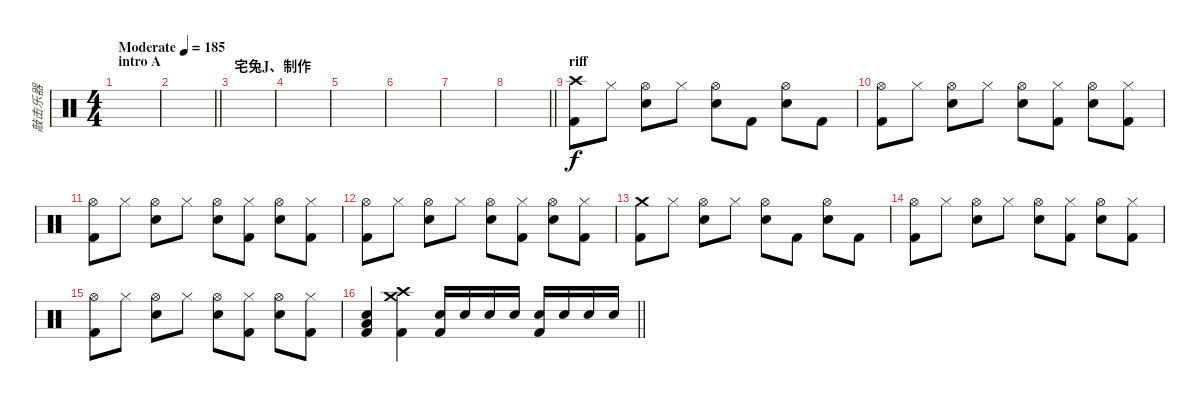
\track ("敲击乐器" "敲击乐器") {instrument percussion}
\staff {score}
\articulation defaults
\ts (4 4)
\section ("" "intro A")
\tempo (185 "Moderate")
\clef neutral
\ks c
|
\barLineRight lightlight
|
\section ("" "宅兔J、制作")
|
|
|
|
|
\barLineRight lightlight
|
\section ("" "riff")
("Crash high (hit)" "Kick (hit) 2").8 "Hi-Hat (closed)".8 ("Hi-Hat (open)" "Snare (hit) 2").8 "Hi-Hat (closed)".8 ("Hi-Hat (open)" "Snare (hit) 2").8 "Kick (hit) 2".8 ("Hi-Hat (open)" "Snare (hit) 2").8 "Kick (hit) 2".8 |
("Hi-Hat (open)" "Kick (hit) 2").8 "Hi-Hat (closed)".8 ("Hi-Hat (open)" "Snare (hit) 2").8 "Hi-Hat (closed)".8 ("Hi-Hat (open)" "Snare (hit) 2").8 ("Hi-Hat (closed)" "Kick (hit) 2").8 ("Hi-Hat (open)" "Snare (hit) 2").8 ("Hi-Hat (closed)" "Kick (hit) 2").8 |
("Hi-Hat (open)" "Kick (hit) 2").8 "Hi-Hat (closed)".8 ("Hi-Hat (open)" "Snare (hit) 2").8 "Hi-Hat (closed)".8 ("Hi-Hat (open)" "Snare (hit) 2").8 ("Hi-Hat (closed)" "Kick (hit) 2").8 ("Hi-Hat (open)" "Snare (hit) 2").8 ("Hi-Hat (closed)" "Kick (hit) 2").8 |
("Hi-Hat (open)" "Kick (hit) 2").8 "Hi-Hat (closed)".8 ("Hi-Hat (open)" "Snare (hit) 2").8 "Hi-Hat (closed)".8 ("Hi-Hat (open)" "Snare (hit) 2").8 ("Hi-Hat (closed)" "Kick (hit) 2").8 ("Hi-Hat (open)" "Snare (hit) 2").8 ("Hi-Hat (closed)" "Kick (hit) 2").8 |
("Crash medium (hit)" "Kick (hit) 2").8 "Hi-Hat (closed)".8 ("Hi-Hat (open)" "Snare (hit) 2").8 "Hi-Hat (closed)".8 ("Hi-Hat (open)" "Snare (hit) 2").8 "Kick (hit) 2".8 ("Hi-Hat (open)" "Snare (hit) 2").8 "Kick (hit) 2".8 |
("Hi-Hat (open)" "Kick (hit) 2").8 "Hi-Hat (closed)".8 ("Hi-Hat (open)" "Snare (hit) 2").8 "Hi-Hat (closed)".8 ("Hi-Hat (open)" "Snare (hit) 2").8 ("Hi-Hat (closed)" "Kick (hit) 2").8 ("Hi-Hat (open)" "Snare (hit) 2").8 ("Hi-Hat (closed)" "Kick (hit) 2").8 |
("Hi-Hat (open)" "Kick (hit) 2").8 "Hi-Hat (closed)".8 ("Hi-Hat (open)" "Snare (hit) 2").8 "Hi-Hat (closed)".8 ("Hi-Hat (open)" "Snare (hit) 2").8 ("Hi-Hat (closed)" "Kick (hit) 2").8 ("Hi-Hat (open)" "Snare (hit) 2").8 ("Hi-Hat (closed)" "Kick (hit) 2").8 |
\barLineRight lightlight
("Low Tom (hit)" "Snare (hit) 2" "Kick (hit) 2").4 ("Crash medium (hit)" "Crash high (hit)" "Kick (hit) 2").4 ("Snare (hit) 2" "Kick (hit) 2").16 "Snare (hit) 2".16 "Snare (hit) 2".16 "Snare (hit) 2".16 ("Snare (hit) 2" "Kick (hit) 2").16 "Snare (hit) 2".16 "Snare (hit) 2".16 "Snare (hit) 2".16
